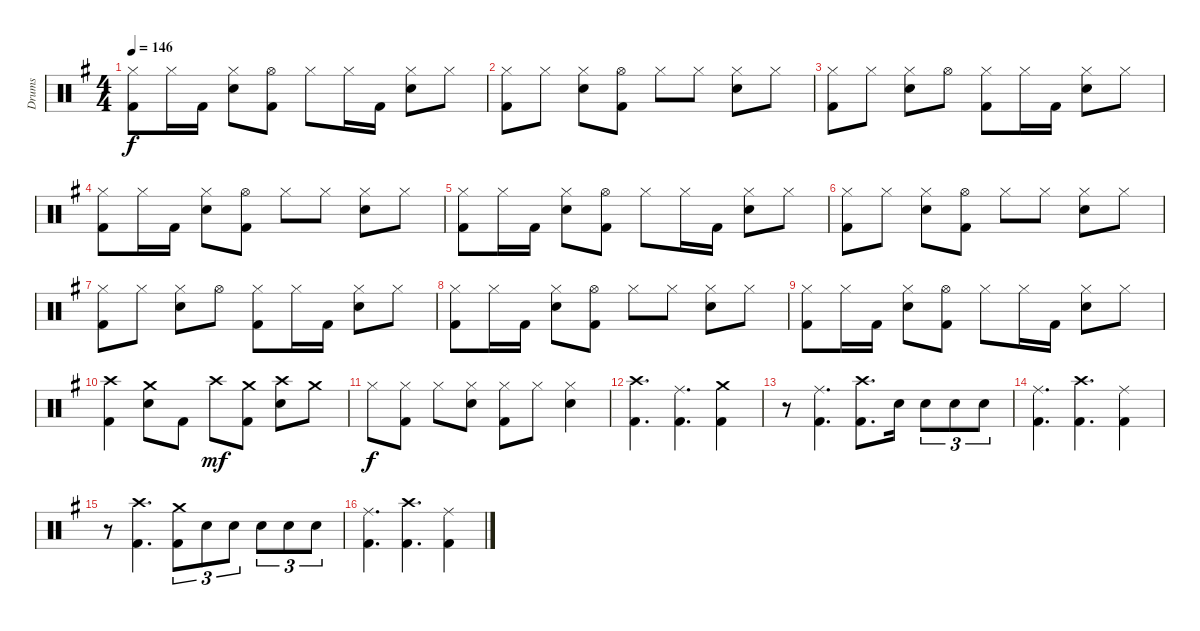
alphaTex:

\track ("Drums" "Drums") {instrument percussion}
\staff {score}
\articulation defaults
\ts (4 4)
\tempo 146
\clef neutral
\ks g
("Kick (hit) 2" "Hi-Hat (closed)").8{dy f} "Hi-Hat (closed)".16 "Kick (hit) 2".16 ("Snare (hit) 2" "Hi-Hat (closed)").8 ("Kick (hit) 2" "Hi-Hat (open)").8 "Hi-Hat (closed)".8 "Hi-Hat (closed)".16 "Kick (hit) 2".16 ("Snare (hit) 2" "Hi-Hat (closed)").8 "Hi-Hat (closed)".8 |
("Kick (hit) 2" "Hi-Hat (closed)").8 "Hi-Hat (closed)".8 ("Snare (hit) 2" "Hi-Hat (closed)").8 ("Kick (hit) 2" "Hi-Hat (open)").8 "Hi-Hat (closed)".8 "Hi-Hat (closed)".8 ("Snare (hit) 2" "Hi-Hat (closed)").8 "Hi-Hat (closed)".8 |
("Kick (hit) 2" "Hi-Hat (closed)").8 "Hi-Hat (closed)".8 ("Snare (hit) 2" "Hi-Hat (closed)").8 "Hi-Hat (open)".8 ("Kick (hit) 2" "Hi-Hat (closed)").8 "Hi-Hat (closed)".16 "Kick (hit) 2".16 ("Snare (hit) 2" "Hi-Hat (closed)").8 "Hi-Hat (closed)".8 |
("Kick (hit) 2" "Hi-Hat (closed)").8 "Hi-Hat (closed)".16 "Kick (hit) 2".16 ("Snare (hit) 2" "Hi-Hat (closed)").8 ("Kick (hit) 2" "Hi-Hat (open)").8 "Hi-Hat (closed)".8 "Hi-Hat (closed)".8 ("Snare (hit) 2" "Hi-Hat (closed)").8 "Hi-Hat (closed)".8 |
("Kick (hit) 2" "Hi-Hat (closed)").8 "Hi-Hat (closed)".16 "Kick (hit) 2".16 ("Snare (hit) 2" "Hi-Hat (closed)").8 ("Kick (hit) 2" "Hi-Hat (open)").8 "Hi-Hat (closed)".8 "Hi-Hat (closed)".16 "Kick (hit) 2".16 ("Snare (hit) 2" "Hi-Hat (closed)").8 "Hi-Hat (closed)".8 |
("Kick (hit) 2" "Hi-Hat (closed)").8 "Hi-Hat (closed)".8 ("Snare (hit) 2" "Hi-Hat (closed)").8 ("Kick (hit) 2" "Hi-Hat (open)").8 "Hi-Hat (closed)".8 "Hi-Hat (closed)".8 ("Snare (hit) 2" "Hi-Hat (closed)").8 "Hi-Hat (closed)".8 |
("Kick (hit) 2" "Hi-Hat (closed)").8 "Hi-Hat (closed)".8 ("Snare (hit) 2" "Hi-Hat (closed)").8 "Hi-Hat (open)".8 ("Kick (hit) 2" "Hi-Hat (closed)").8 "Hi-Hat (closed)".16 "Kick (hit) 2".16 ("Snare (hit) 2" "Hi-Hat (closed)").8 "Hi-Hat (closed)".8 |
("Kick (hit) 2" "Hi-Hat (closed)").8 "Hi-Hat (closed)".16 "Kick (hit) 2".16 ("Snare (hit) 2" "Hi-Hat (closed)").8 ("Kick (hit) 2" "Hi-Hat (open)").8 "Hi-Hat (closed)".8 "Hi-Hat (closed)".8 ("Snare (hit) 2" "Hi-Hat (closed)").8 "Hi-Hat (closed)".8 |
("Kick (hit) 2" "Hi-Hat (closed)").8 "Hi-Hat (closed)".16 "Kick (hit) 2".16 ("Snare (hit) 2" "Hi-Hat (closed)").8 ("Kick (hit) 2" "Hi-Hat (open)").8 "Hi-Hat (closed)".8 "Hi-Hat (closed)".16 "Kick (hit) 2".16 ("Snare (hit) 2" "Hi-Hat (closed)").8 "Hi-Hat (closed)".8 |
("Kick (hit) 2" "Crash high (hit)").4 ("Snare (hit) 2" "Crash medium (hit)").8 "Kick (hit) 2".8 "Crash high (hit)".8{dy mf} ("Kick (hit) 2" "Crash medium (hit)").8 ("Snare (hit) 2" "Crash high (hit)").8 "Crash medium (hit)".8 |
"Hi-Hat (closed)".8{dy f} ("Kick (hit) 2" "Hi-Hat (closed)").8 "Hi-Hat (closed)".8 ("Snare (hit) 2" "Hi-Hat (closed)").8 ("Kick (hit) 2" "Hi-Hat (closed)").8 "Hi-Hat (closed)".8 ("Snare (hit) 2" "Hi-Hat (closed)").4 |
("Kick (hit) 2" "Crash high (hit)").4{d} ("Kick (hit) 2" "Ride (middle)").4{d} ("Kick (hit) 2" "Crash medium (hit)").4 |
r.8 ("Kick (hit) 2" "Ride (middle)").4{d} ("Kick (hit) 2" "Crash high (hit)").8{d} "Snare (hit) 2".16 "Snare (hit) 2".8{tu (3 2)} "Snare (hit) 2".8{tu (3 2)} "Snare (hit) 2".8{tu (3 2)} |
("Kick (hit) 2" "Ride (middle)").4{d} ("Kick (hit) 2" "Crash high (hit)").4{d} ("Kick (hit) 2" "Ride (middle)").4 |
r.8 ("Kick (hit) 2" "Crash high (hit)").4{d} ("Kick (hit) 2" "Crash medium (hit)").8{tu (3 2)} "Snare (hit) 2".8{tu (3 2)} "Snare (hit) 2".8{tu (3 2)} "Snare (hit) 2".8{tu (3 2)} "Snare (hit) 2".8{tu (3 2)} "Snare (hit) 2".8{tu (3 2)} |
("Kick (hit) 2" "Ride (middle)").4{d} ("Kick (hit) 2" "Crash high (hit)").4{d} ("Kick (hit) 2" "Ride (middle)").4
